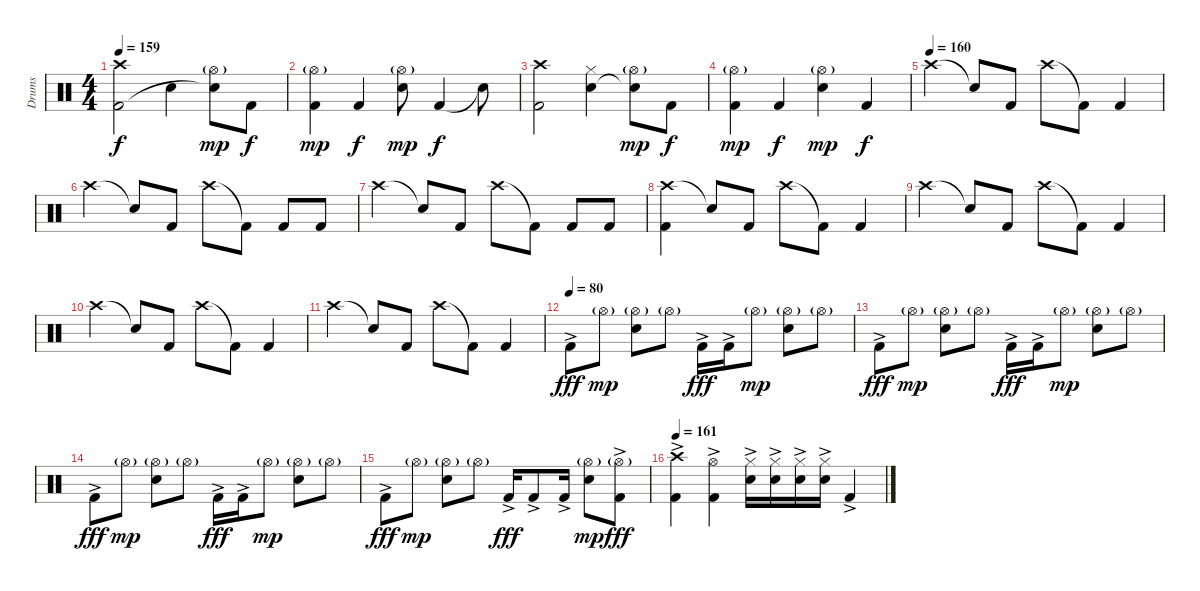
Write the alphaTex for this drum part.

\track ("Drums" "Drums") {instrument percussion}
\staff {score}
\articulation defaults
\ts (4 4)
\tempo 159
\clef neutral
\ks c
("Crash high (hit)" "Kick (hit) 2").2{dy f} "Electric Snare (hit)".4 ("Hi-Hat (open)"{g} "Snare (hit)"{t}).8{dy mp} "Kick (hit) 2".8{dy f} |
("Hi-Hat (open)"{g} "Kick (hit) 2").4{dy mp} "Kick (hit) 2".4{dy f} ("Hi-Hat (open)"{g} "Electric Snare (hit)").8{dy mp} "Kick (hit) 2".4{dy f} "Snare (hit)"{t}.8 |
("Crash high (hit)" "Kick (hit) 2").2 ("Hi-Hat (closed)" "Electric Snare (hit)").4 ("Hi-Hat (open)"{g} "Snare (hit)"{t}).8{dy mp} "Kick (hit) 2".8{dy f} |
("Hi-Hat (open)"{g} "Kick (hit) 2").4{dy mp} "Kick (hit) 2".4{dy f} ("Hi-Hat (open)"{g} "Electric Snare (hit)").4{dy mp} "Kick (hit) 2".4{dy f} |
\tempo (160)
"Crash high (hit)".4 "Snare (hit)"{t}.8 "Kick (hit) 2".8 "Crash high (hit)".8 "Kick (hit) 2"{t}.8 "Kick (hit) 2".4 |
"Crash high (hit)".4 "Snare (hit)"{t}.8 "Kick (hit) 2".8 "Crash high (hit)".8 "Kick (hit) 2"{t}.8 "Kick (hit) 2".8 "Kick (hit) 2".8 |
"Crash high (hit)".4 "Snare (hit)"{t}.8 "Kick (hit) 2".8 "Crash high (hit)".8 "Kick (hit) 2"{t}.8 "Kick (hit) 2".8 "Kick (hit) 2".8 |
("Crash high (hit)" "Kick (hit) 2").4 "Snare (hit)"{t}.8 "Kick (hit) 2".8 "Crash high (hit)".8 "Kick (hit) 2"{t}.8 "Kick (hit) 2".4 |
"Crash high (hit)".4 "Snare (hit)"{t}.8 "Kick (hit) 2".8 "Crash high (hit)".8 "Kick (hit) 2"{t}.8 "Kick (hit) 2".4 |
"Crash high (hit)".4 "Snare (hit)"{t}.8 "Kick (hit) 2".8 "Crash high (hit)".8 "Kick (hit) 2"{t}.8 "Kick (hit) 2".4 |
"Crash high (hit)".4 "Snare (hit)"{t}.8 "Kick (hit) 2".8 "Crash high (hit)".8 "Kick (hit) 2"{t}.8 "Kick (hit) 2".4 |
\tempo (80)
"Kick (hit) 2"{ac}.8{dy fff} "Hi-Hat (open)"{g}.8{dy mp} ("Hi-Hat (open)"{g} "Electric Snare (hit)").8 "Hi-Hat (open)"{g}.8 "Kick (hit) 2"{ac}.16{dy fff} "Kick (hit) 2"{ac}.16 "Hi-Hat (open)"{g}.8{dy mp} ("Hi-Hat (open)"{g} "Electric Snare (hit)").8 "Hi-Hat (open)"{g}.8 |
"Kick (hit) 2"{ac}.8{dy fff} "Hi-Hat (open)"{g}.8{dy mp} ("Hi-Hat (open)"{g} "Electric Snare (hit)").8 "Hi-Hat (open)"{g}.8 "Kick (hit) 2"{ac}.16{dy fff} "Kick (hit) 2"{ac}.16 "Hi-Hat (open)"{g}.8{dy mp} ("Hi-Hat (open)"{g} "Electric Snare (hit)").8 "Hi-Hat (open)"{g}.8 |
"Kick (hit) 2"{ac}.8{dy fff} "Hi-Hat (open)"{g}.8{dy mp} ("Hi-Hat (open)"{g} "Electric Snare (hit)").8 "Hi-Hat (open)"{g}.8 "Kick (hit) 2"{ac}.16{dy fff} "Kick (hit) 2"{ac}.16 "Hi-Hat (open)"{g}.8{dy mp} ("Hi-Hat (open)"{g} "Electric Snare (hit)").8 "Hi-Hat (open)"{g}.8 |
"Kick (hit) 2"{ac}.8{dy fff} "Hi-Hat (open)"{g}.8{dy mp} ("Hi-Hat (open)"{g} "Electric Snare (hit)").8 "Hi-Hat (open)"{g}.8 "Kick (hit) 2"{ac}.16{dy fff} "Kick (hit) 2"{ac}.8 "Kick (hit) 2"{ac}.16 ("Hi-Hat (open)"{g} "Electric Snare (hit)").8{dy mp} ("Hi-Hat (open)"{g} "Kick (hit) 2"{ac}).8{dy fff} |
\tempo 161
("Kick (hit) 2"{ac} "Crash high (hit)").4 ("Kick (hit) 2"{ac} "Hi-Hat (open)").4 ("Electric Snare (hit)"{ac} "Hi-Hat (closed)").16 ("Electric Snare (hit)"{ac} "Hi-Hat (closed)").16 ("Electric Snare (hit)"{ac} "Hi-Hat (closed)").16 ("Electric Snare (hit)"{ac} "Hi-Hat (closed)").16 "Kick (hit) 2"{ac}.4
